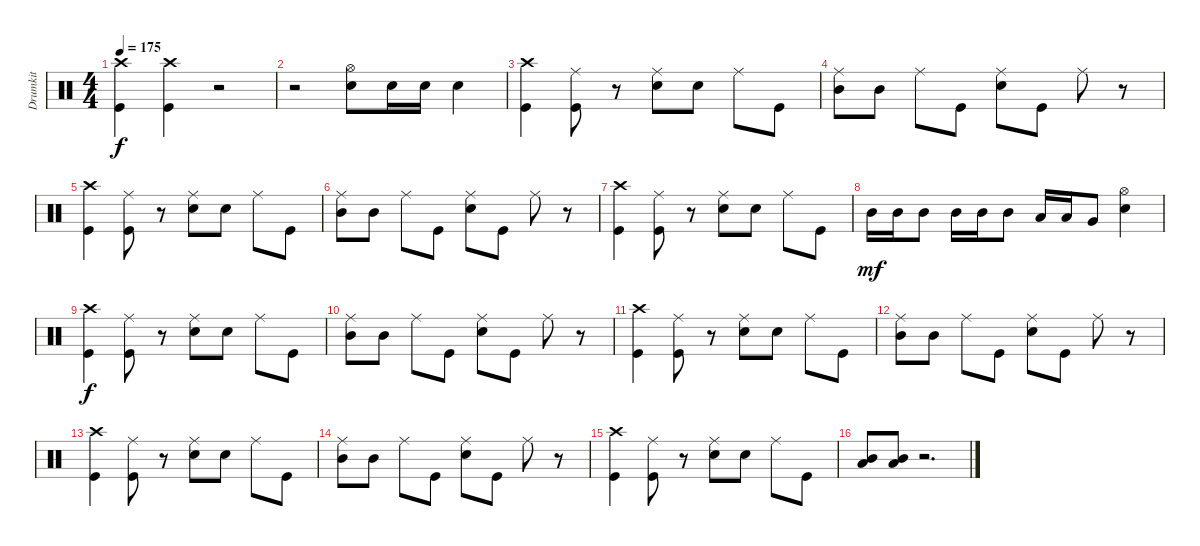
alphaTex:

\track ("Drumkit" "Drumkit") {instrument percussion}
\staff {score}
\articulation defaults
\ts (4 4)
\tempo 175
\clef neutral
\ks c
("Crash high (hit)" "Kick (hit)").4{dy f} ("Crash high (hit)" "Kick (hit)").4 r.2 |
r.2 ("Hi-Hat (open)" "Snare (hit) 2").8 "Snare (hit) 2".16 "Snare (hit) 2".16 "Snare (hit) 2".4 |
("Crash high (hit)" "Kick (hit)").4 ("Ride (middle)" "Kick (hit)").8 r.8 ("Ride (middle)" "Snare (hit) 2").8 "Snare (hit) 2".8 "Ride (middle)".8 "Kick (hit)".8 |
("Ride (middle)" "Mid Tom (hit)").8 "Mid Tom (hit)".8 "Ride (middle)".8 "Kick (hit)".8 ("Ride (middle)" "Snare (hit) 2").8 "Kick (hit)".8 "Ride (middle)".8 r.8 |
("Crash high (hit)" "Kick (hit)").4 ("Ride (middle)" "Kick (hit)").8 r.8 ("Ride (middle)" "Snare (hit) 2").8 "Snare (hit) 2".8 "Ride (middle)".8 "Kick (hit)".8 |
("Ride (middle)" "Mid Tom (hit)").8 "Mid Tom (hit)".8 "Ride (middle)".8 "Kick (hit)".8 ("Ride (middle)" "Snare (hit) 2").8 "Kick (hit)".8 "Ride (middle)".8 r.8 |
("Crash high (hit)" "Kick (hit)").4 ("Ride (middle)" "Kick (hit)").8 r.8 ("Ride (middle)" "Snare (hit) 2").8 "Snare (hit) 2".8 "Ride (middle)".8 "Kick (hit)".8 |
"Mid Tom (hit)".16{dy mf} "Mid Tom (hit)".16 "Mid Tom (hit)".8 "Mid Tom (hit)".16 "Mid Tom (hit)".16 "Mid Tom (hit)".8 "Low Tom (hit)".16 "Low Tom (hit)".16 "Very Low Tom (hit)".8 ("Snare (hit) 2" "Hi-Hat (open)").4 |
("Crash high (hit)" "Kick (hit)").4{dy f} ("Ride (middle)" "Kick (hit)").8 r.8 ("Ride (middle)" "Snare (hit) 2").8 "Snare (hit) 2".8 "Ride (middle)".8 "Kick (hit)".8 |
("Ride (middle)" "Mid Tom (hit)").8 "Mid Tom (hit)".8 "Ride (middle)".8 "Kick (hit)".8 ("Ride (middle)" "Snare (hit) 2").8 "Kick (hit)".8 "Ride (middle)".8 r.8 |
("Crash high (hit)" "Kick (hit)").4 ("Ride (middle)" "Kick (hit)").8 r.8 ("Ride (middle)" "Snare (hit) 2").8 "Snare (hit) 2".8 "Ride (middle)".8 "Kick (hit)".8 |
("Ride (middle)" "Mid Tom (hit)").8 "Mid Tom (hit)".8 "Ride (middle)".8 "Kick (hit)".8 ("Ride (middle)" "Snare (hit) 2").8 "Kick (hit)".8 "Ride (middle)".8 r.8 |
("Crash high (hit)" "Kick (hit)").4 ("Ride (middle)" "Kick (hit)").8 r.8 ("Ride (middle)" "Snare (hit) 2").8 "Snare (hit) 2".8 "Ride (middle)".8 "Kick (hit)".8 |
("Ride (middle)" "Mid Tom (hit)").8 "Mid Tom (hit)".8 "Ride (middle)".8 "Kick (hit)".8 ("Ride (middle)" "Snare (hit) 2").8 "Kick (hit)".8 "Ride (middle)".8 r.8 |
("Crash high (hit)" "Kick (hit)").4 ("Ride (middle)" "Kick (hit)").8 r.8 ("Ride (middle)" "Snare (hit) 2").8 "Snare (hit) 2".8 "Ride (middle)".8 "Kick (hit)".8 |
("Low Tom (hit)" "Mid Tom (hit)").8 ("Mid Tom (hit)" "Low Tom (hit)").8 r.2{d}
